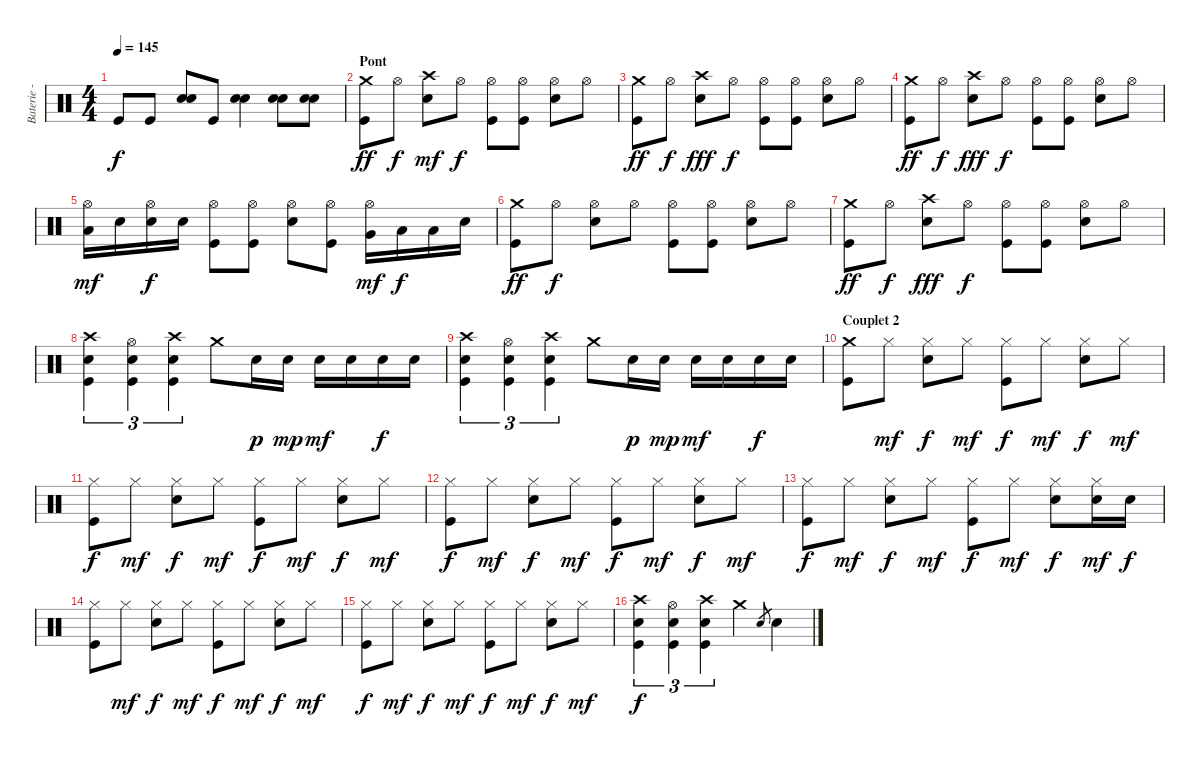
\track ("Baterie - Alex" "Baterie - ") {instrument percussion}
\staff {score}
\articulation defaults
\ts (4 4)
\tempo 145
\clef neutral
\ks c "Kick (hit)".8{dy f} "Kick (hit)".8
("Snare (hit) 2" "Electric Snare (hit)").8 "Kick (hit)".8 ("Snare (hit) 2" "Electric Snare (hit)").4 ("Snare (hit) 2" "Electric Snare (hit)").8 ("Snare (hit) 2" "Electric Snare (hit)").8 |
\section ("" "Pont")
("Crash medium (hit)" "Kick (hit)").8{dy ff} "Hi-Hat (open)".8{dy f} ("Crash high (hit)" "Electric Snare (hit)").8{dy mf} "Hi-Hat (open)".8{dy f} ("Hi-Hat (open)" "Kick (hit)").8 ("Hi-Hat (open)" "Kick (hit)").8 ("Hi-Hat (open)" "Electric Snare (hit)").8 "Hi-Hat (open)".8 |
("Crash medium (hit)" "Kick (hit)").8{dy ff} "Hi-Hat (open)".8{dy f} ("Crash high (hit)" "Electric Snare (hit)").8{dy fff} "Hi-Hat (open)".8{dy f} ("Hi-Hat (open)" "Kick (hit)").8 ("Hi-Hat (open)" "Kick (hit)").8 ("Hi-Hat (open)" "Electric Snare (hit)").8 "Hi-Hat (open)".8 |
("Crash medium (hit)" "Kick (hit)").8{dy ff} "Hi-Hat (open)".8{dy f} ("Crash high (hit)" "Electric Snare (hit)").8{dy fff} "Hi-Hat (open)".8{dy f} ("Hi-Hat (open)" "Kick (hit)").8 ("Hi-Hat (open)" "Kick (hit)").8 ("Hi-Hat (open)" "Electric Snare (hit)").8 "Hi-Hat (open)".8 |
("Hi-Hat (open)" "Low Floor Tom (hit)").16{dy mf} "Electric Snare (hit)".16 ("Hi-Hat (open)" "Electric Snare (hit)").16{dy f} "Electric Snare (hit)".16 ("Hi-Hat (open)" "Kick (hit)").8 ("Hi-Hat (open)" "Kick (hit)").8 ("Hi-Hat (open)" "Electric Snare (hit)").8 ("Hi-Hat (open)" "Kick (hit)").8 ("Hi-Hat (open)" "Very Low Tom (hit)").16{dy mf} "Low Floor Tom (hit)".16{dy f} "Low Tom (hit)".16 "Electric Snare (hit)".16 |
("Crash medium (hit)" "Kick (hit)").8{dy ff} "Hi-Hat (open)".8{dy f} ("Hi-Hat (open)" "Electric Snare (hit)").8 "Hi-Hat (open)".8 ("Hi-Hat (open)" "Kick (hit)").8 ("Hi-Hat (open)" "Kick (hit)").8 ("Hi-Hat (open)" "Electric Snare (hit)").8 "Hi-Hat (open)".8 |
("Crash medium (hit)" "Kick (hit)").8{dy ff} "Hi-Hat (open)".8{dy f} ("Crash high (hit)" "Electric Snare (hit)").8{dy fff} "Hi-Hat (open)".8{dy f} ("Hi-Hat (open)" "Kick (hit)").8 ("Hi-Hat (open)" "Kick (hit)").8 ("Hi-Hat (open)" "Electric Snare (hit)").8 "Hi-Hat (open)".8 |
("Crash high (hit)" "Electric Snare (hit)" "Kick (hit)").4{tu (3 2)} ("Hi-Hat (open)" "Electric Snare (hit)" "Kick (hit)").4{tu (3 2)} ("Crash high (hit)" "Electric Snare (hit)" "Kick (hit)").4{tu (3 2)} "Crash medium (hit)".8 "Electric Snare (hit)".16{dy p} "Electric Snare (hit)".16{dy mp} "Electric Snare (hit)".16{dy mf} "Electric Snare (hit)".16 "Electric Snare (hit)".16{dy f} "Electric Snare (hit)".16 |
("Crash high (hit)" "Electric Snare (hit)" "Kick (hit)").4{tu (3 2)} ("Hi-Hat (open)" "Electric Snare (hit)" "Kick (hit)").4{tu (3 2)} ("Crash high (hit)" "Electric Snare (hit)" "Kick (hit)").4{tu (3 2)} "Crash medium (hit)".8 "Electric Snare (hit)".16{dy p} "Electric Snare (hit)".16{dy mp} "Electric Snare (hit)".16{dy mf} "Electric Snare (hit)".16 "Electric Snare (hit)".16{dy f} "Electric Snare (hit)".16 |
\section ("" "Couplet 2")
("Crash medium (hit)" "Kick (hit)").8 "Hi-Hat (closed)".8{dy mf} ("Hi-Hat (closed)" "Electric Snare (hit)").8{dy f} "Hi-Hat (closed)".8{dy mf} ("Hi-Hat (closed)" "Kick (hit)").8{dy f} "Hi-Hat (closed)".8{dy mf} ("Hi-Hat (closed)" "Electric Snare (hit)").8{dy f} "Hi-Hat (closed)".8{dy mf} |
("Hi-Hat (closed)" "Kick (hit)").8{dy f} "Hi-Hat (closed)".8{dy mf} ("Hi-Hat (closed)" "Electric Snare (hit)").8{dy f} "Hi-Hat (closed)".8{dy mf} ("Hi-Hat (closed)" "Kick (hit)").8{dy f} "Hi-Hat (closed)".8{dy mf} ("Hi-Hat (closed)" "Electric Snare (hit)").8{dy f} "Hi-Hat (closed)".8{dy mf} |
("Hi-Hat (closed)" "Kick (hit)").8{dy f} "Hi-Hat (closed)".8{dy mf} ("Hi-Hat (closed)" "Electric Snare (hit)").8{dy f} "Hi-Hat (closed)".8{dy mf} ("Hi-Hat (closed)" "Kick (hit)").8{dy f} "Hi-Hat (closed)".8{dy mf} ("Hi-Hat (closed)" "Electric Snare (hit)").8{dy f} "Hi-Hat (closed)".8{dy mf} |
("Hi-Hat (closed)" "Kick (hit)").8{dy f} "Hi-Hat (closed)".8{dy mf} ("Hi-Hat (closed)" "Electric Snare (hit)").8{dy f} "Hi-Hat (closed)".8{dy mf} ("Hi-Hat (closed)" "Kick (hit)").8{dy f} "Hi-Hat (closed)".8{dy mf} ("Hi-Hat (closed)" "Electric Snare (hit)").8{dy f} ("Hi-Hat (closed)" "Electric Snare (hit)").16{dy mf} "Electric Snare (hit)".16{dy f} |
("Hi-Hat (closed)" "Kick (hit)").8 "Hi-Hat (closed)".8{dy mf} ("Hi-Hat (closed)" "Electric Snare (hit)").8{dy f} "Hi-Hat (closed)".8{dy mf} ("Hi-Hat (closed)" "Kick (hit)").8{dy f} "Hi-Hat (closed)".8{dy mf} ("Hi-Hat (closed)" "Electric Snare (hit)").8{dy f} "Hi-Hat (closed)".8{dy mf} |
("Hi-Hat (closed)" "Kick (hit)").8{dy f} "Hi-Hat (closed)".8{dy mf} ("Hi-Hat (closed)" "Electric Snare (hit)").8{dy f} "Hi-Hat (closed)".8{dy mf} ("Hi-Hat (closed)" "Kick (hit)").8{dy f} "Hi-Hat (closed)".8{dy mf} ("Hi-Hat (closed)" "Electric Snare (hit)").8{dy f} "Hi-Hat (closed)".8{dy mf} |
("Crash high (hit)" "Electric Snare (hit)" "Kick (hit)").4{tu (3 2) dy f} ("Hi-Hat (open)" "Electric Snare (hit)" "Kick (hit)").4{tu (3 2)} ("Crash high (hit)" "Electric Snare (hit)" "Kick (hit)").4{tu (3 2)} "Crash medium (hit)".4 "Electric Snare (hit)".8{gr} "Electric Snare (hit)".4
